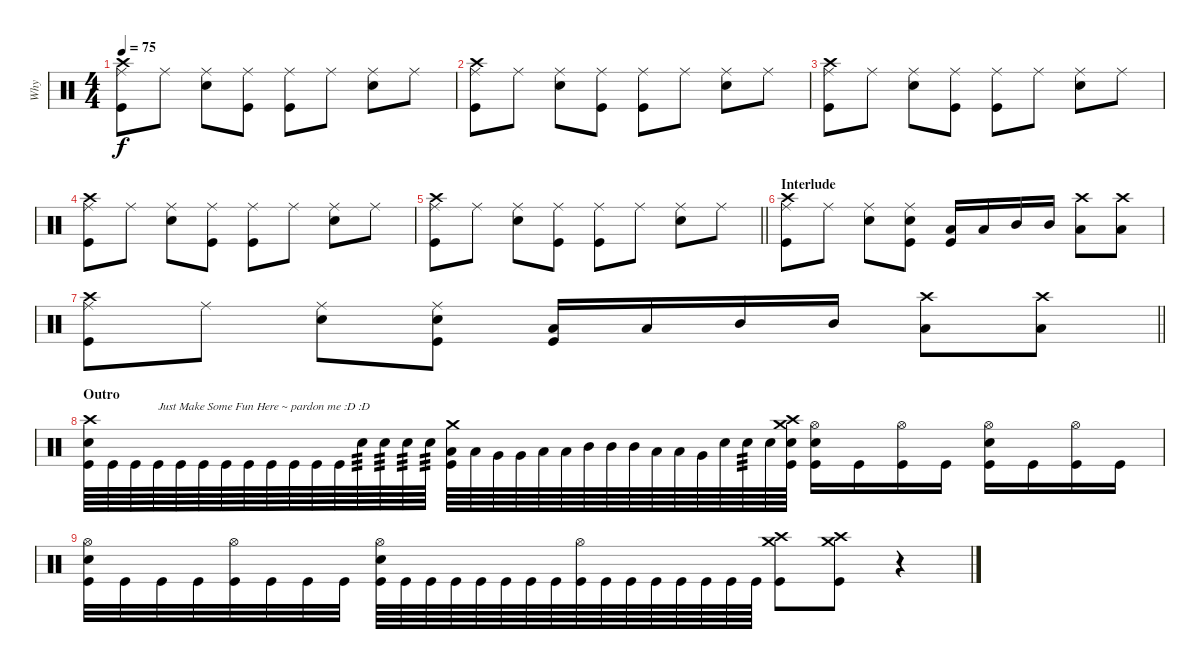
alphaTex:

\track ("Why" "Why") {instrument percussion}
\staff {score}
\articulation defaults
\ts (4 4)
\tempo 75
\clef neutral
\ks c
("Crash high (hit)" "Ride (middle)" "Kick (hit)").8{dy f} "Ride (middle)".8 ("Ride (middle)" "Snare (hit) 2").8 ("Ride (middle)" "Kick (hit)").8 ("Ride (middle)" "Kick (hit)").8 "Ride (middle)".8 ("Ride (middle)" "Snare (hit) 2").8 "Ride (middle)".8 |
("Crash high (hit)" "Ride (middle)" "Kick (hit)").8 "Ride (middle)".8 ("Ride (middle)" "Snare (hit) 2").8 ("Ride (middle)" "Kick (hit)").8 ("Ride (middle)" "Kick (hit)").8 "Ride (middle)".8 ("Ride (middle)" "Snare (hit) 2").8 "Ride (middle)".8 |
("Crash high (hit)" "Ride (middle)" "Kick (hit)").8 "Ride (middle)".8 ("Ride (middle)" "Snare (hit) 2").8 ("Ride (middle)" "Kick (hit)").8 ("Ride (middle)" "Kick (hit)").8 "Ride (middle)".8 ("Ride (middle)" "Snare (hit) 2").8 "Ride (middle)".8 |
("Crash high (hit)" "Ride (middle)" "Kick (hit)").8 "Ride (middle)".8 ("Ride (middle)" "Snare (hit) 2").8 ("Ride (middle)" "Kick (hit)").8 ("Ride (middle)" "Kick (hit)").8 "Ride (middle)".8 ("Ride (middle)" "Snare (hit) 2").8 "Ride (middle)".8 |
\barLineRight lightlight
("Crash high (hit)" "Ride (middle)" "Kick (hit)").8 "Ride (middle)".8 ("Ride (middle)" "Snare (hit) 2").8 ("Ride (middle)" "Kick (hit)").8 ("Ride (middle)" "Kick (hit)").8 "Ride (middle)".8 ("Ride (middle)" "Snare (hit) 2").8 "Ride (middle)".8 |
\section ("" "Interlude")
("Crash high (hit)" "Ride (middle)" "Kick (hit)").8 "Ride (middle)".8 ("Ride (middle)" "Snare (hit) 2").8 ("Ride (middle)" "Snare (hit) 2" "Kick (hit)").8 ("Low Tom (hit)" "Kick (hit)").16 "Low Tom (hit)".16 "Mid Tom (hit)".16 "Mid Tom (hit)".16 ("Crash high (hit)" "Low Floor Tom (hit)").8 ("Crash high (hit)" "Low Floor Tom (hit)").8 |
\barLineRight lightlight
("Crash high (hit)" "Ride (middle)" "Kick (hit)").8 "Ride (middle)".8 ("Ride (middle)" "Snare (hit) 2").8 ("Ride (middle)" "Snare (hit) 2" "Kick (hit)").8 ("Low Tom (hit)" "Kick (hit)").16 "Low Tom (hit)".16 "Mid Tom (hit)".16 "Mid Tom (hit)".16 ("Crash high (hit)" "Low Floor Tom (hit)").8 ("Crash high (hit)" "Low Floor Tom (hit)").8 |
\section ("" "Outro")
("Crash high (hit)" "Snare (hit) 2" "Kick (hit)").64 "Kick (hit)".64 "Kick (hit)".64 "Kick (hit)".64{txt "Just Make Some Fun Here ~ pardon me :D :D"} "Kick (hit)".64 "Kick (hit)".64 "Kick (hit)".64 "Kick (hit)".64 "Kick (hit)".64 "Kick (hit)".64 "Kick (hit)".64 "Kick (hit)".64 "Snare (hit) 2".64{tp 3} "Snare (hit) 2".64{tp 3} "Snare (hit) 2".64{tp 3} "Snare (hit) 2".64{tp 3} ("Crash medium (hit)" "Low Floor Tom (hit)" "Kick (hit)").64 "Low Floor Tom (hit)".64 "Very Low Tom (hit)".64 "Very Low Tom (hit)".64 "Low Tom (hit)".64 "Low Tom (hit)".64 "Mid Tom (hit)".64 "Mid Tom (hit)".64 "Mid Tom (hit)".64 "Low Tom (hit)".64 "Low Tom (hit)".64 "Very Low Tom (hit)".64 "Snare (hit) 2".64 "Snare (hit) 2".64{tp 3} "Snare (hit) 2".64 ("Crash medium (hit)" "Crash high (hit)" "Snare (hit) 2" "Kick (hit)").64 ("Hi-Hat (open)" "Snare (hit) 2" "Kick (hit)").16 "Kick (hit)".16 ("Hi-Hat (open)" "Kick (hit)").16 "Kick (hit)".16 ("Hi-Hat (open)" "Snare (hit) 2" "Kick (hit)").16 "Kick (hit)".16 ("Hi-Hat (open)" "Kick (hit)").16 "Kick (hit)".16 |
("Hi-Hat (open)" "Snare (hit) 2" "Kick (hit)").32 "Kick (hit)".32 "Kick (hit)".32 "Kick (hit)".32 ("Hi-Hat (open)" "Kick (hit)").32 "Kick (hit)".32 "Kick (hit)".32 "Kick (hit)".32 ("Hi-Hat (open)" "Snare (hit) 2" "Kick (hit)").64 "Kick (hit)".64 "Kick (hit)".64 "Kick (hit)".64 "Kick (hit)".64 "Kick (hit)".64 "Kick (hit)".64 "Kick (hit)".64 ("Hi-Hat (open)" "Kick (hit)").64 "Kick (hit)".64 "Kick (hit)".64 "Kick (hit)".64 "Kick (hit)".64 "Kick (hit)".64 "Kick (hit)".64 "Kick (hit)".64 ("Crash medium (hit)" "Crash high (hit)" "Kick (hit)").8 ("Crash medium (hit)" "Crash high (hit)" "Kick (hit)").8 r.4
